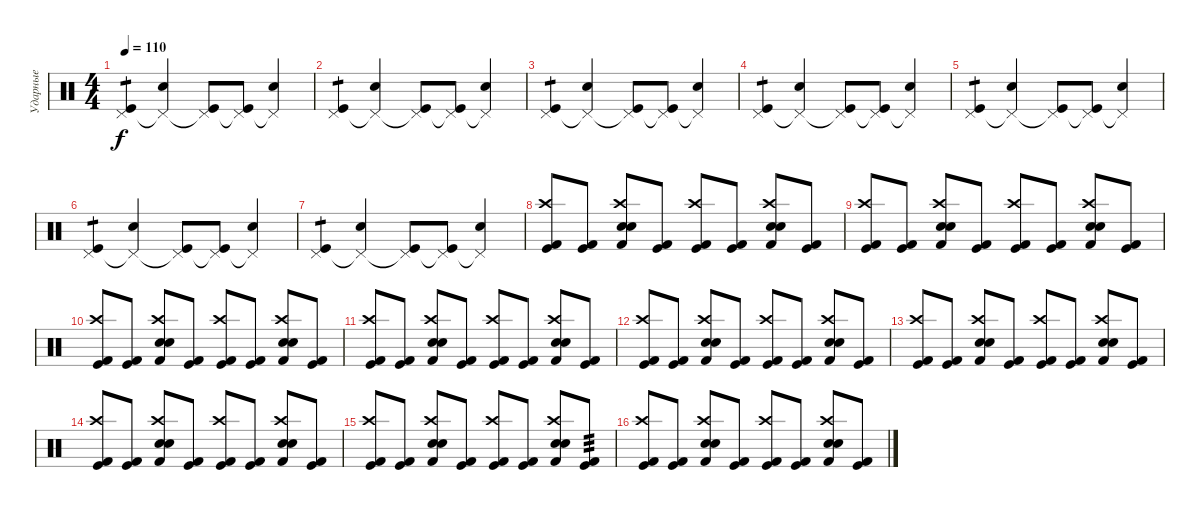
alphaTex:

\track ("Ударные" "Ударные") {instrument percussion}
\staff {score}
\articulation defaults
\ts (4 4)
\tempo 110
\clef neutral
\ks c
("Pedal Hi-Hat (hit)" "Kick (hit)").4{tp 1 dy f} ("Pedal Hi-Hat (hit)"{t} "Electric Snare (hit)").4 ("Pedal Hi-Hat (hit)"{t} "Kick (hit)").8 ("Pedal Hi-Hat (hit)"{t} "Kick (hit)").8 ("Pedal Hi-Hat (hit)"{t} "Electric Snare (hit)").4 |
("Pedal Hi-Hat (hit)" "Kick (hit)").4{tp 1} ("Pedal Hi-Hat (hit)"{t} "Electric Snare (hit)").4 ("Pedal Hi-Hat (hit)"{t} "Kick (hit)").8 ("Pedal Hi-Hat (hit)"{t} "Kick (hit)").8 ("Pedal Hi-Hat (hit)"{t} "Electric Snare (hit)").4 |
("Pedal Hi-Hat (hit)" "Kick (hit)").4{tp 1} ("Pedal Hi-Hat (hit)"{t} "Electric Snare (hit)").4 ("Pedal Hi-Hat (hit)"{t} "Kick (hit)").8 ("Pedal Hi-Hat (hit)"{t} "Kick (hit)").8 ("Pedal Hi-Hat (hit)"{t} "Electric Snare (hit)").4 |
("Pedal Hi-Hat (hit)" "Kick (hit)").4{tp 1} ("Pedal Hi-Hat (hit)"{t} "Electric Snare (hit)").4 ("Pedal Hi-Hat (hit)"{t} "Kick (hit)").8 ("Pedal Hi-Hat (hit)"{t} "Kick (hit)").8 ("Pedal Hi-Hat (hit)"{t} "Electric Snare (hit)").4 |
("Pedal Hi-Hat (hit)" "Kick (hit)").4{tp 1} ("Pedal Hi-Hat (hit)"{t} "Electric Snare (hit)").4 ("Pedal Hi-Hat (hit)"{t} "Kick (hit)").8 ("Pedal Hi-Hat (hit)"{t} "Kick (hit)").8 ("Pedal Hi-Hat (hit)"{t} "Electric Snare (hit)").4 |
("Pedal Hi-Hat (hit)" "Kick (hit)").4{tp 1} ("Pedal Hi-Hat (hit)"{t} "Electric Snare (hit)").4 ("Pedal Hi-Hat (hit)"{t} "Kick (hit)").8 ("Pedal Hi-Hat (hit)"{t} "Kick (hit)").8 ("Pedal Hi-Hat (hit)"{t} "Electric Snare (hit)").4 |
("Pedal Hi-Hat (hit)" "Kick (hit)").4{tp 1} ("Pedal Hi-Hat (hit)"{t} "Electric Snare (hit)").4 ("Pedal Hi-Hat (hit)"{t} "Kick (hit)").8 ("Pedal Hi-Hat (hit)"{t} "Kick (hit)").8 ("Pedal Hi-Hat (hit)"{t} "Electric Snare (hit)").4 |
("Crash high (hit)" "Kick (hit)" "Kick (hit) 2").8 ("Kick (hit)" "Kick (hit) 2").8 ("Crash high (hit)" "Snare (hit) 2" "Electric Snare (hit)" "Kick (hit) 2").8 ("Kick (hit)" "Kick (hit) 2").8 ("Crash high (hit)" "Kick (hit)" "Kick (hit) 2").8 ("Kick (hit)" "Kick (hit) 2").8 ("Crash high (hit)" "Snare (hit) 2" "Electric Snare (hit)" "Kick (hit) 2").8 ("Kick (hit)" "Kick (hit) 2").8 |
("Crash high (hit)" "Kick (hit)" "Kick (hit) 2").8 ("Kick (hit)" "Kick (hit) 2").8 ("Crash high (hit)" "Snare (hit) 2" "Electric Snare (hit)" "Kick (hit) 2").8 ("Kick (hit)" "Kick (hit) 2").8 ("Crash high (hit)" "Kick (hit)" "Kick (hit) 2").8 ("Kick (hit)" "Kick (hit) 2").8 ("Crash high (hit)" "Snare (hit) 2" "Electric Snare (hit)" "Kick (hit) 2").8 ("Kick (hit)" "Kick (hit) 2").8 |
("Crash high (hit)" "Kick (hit)" "Kick (hit) 2").8 ("Kick (hit)" "Kick (hit) 2").8 ("Crash high (hit)" "Snare (hit) 2" "Electric Snare (hit)" "Kick (hit) 2").8 ("Kick (hit)" "Kick (hit) 2").8 ("Crash high (hit)" "Kick (hit)" "Kick (hit) 2").8 ("Kick (hit)" "Kick (hit) 2").8 ("Crash high (hit)" "Snare (hit) 2" "Electric Snare (hit)" "Kick (hit) 2").8 ("Kick (hit)" "Kick (hit) 2").8 |
("Crash high (hit)" "Kick (hit)" "Kick (hit) 2").8 ("Kick (hit)" "Kick (hit) 2").8 ("Crash high (hit)" "Snare (hit) 2" "Electric Snare (hit)" "Kick (hit) 2").8 ("Kick (hit)" "Kick (hit) 2").8 ("Crash high (hit)" "Kick (hit)" "Kick (hit) 2").8 ("Kick (hit)" "Kick (hit) 2").8 ("Crash high (hit)" "Snare (hit) 2" "Electric Snare (hit)" "Kick (hit) 2").8 ("Kick (hit)" "Kick (hit) 2").8 |
("Crash high (hit)" "Kick (hit)" "Kick (hit) 2").8 ("Kick (hit)" "Kick (hit) 2").8 ("Crash high (hit)" "Snare (hit) 2" "Electric Snare (hit)" "Kick (hit) 2").8 ("Kick (hit)" "Kick (hit) 2").8 ("Crash high (hit)" "Kick (hit)" "Kick (hit) 2").8 ("Kick (hit)" "Kick (hit) 2").8 ("Crash high (hit)" "Snare (hit) 2" "Electric Snare (hit)" "Kick (hit) 2").8 ("Kick (hit)" "Kick (hit) 2").8 |
("Crash high (hit)" "Kick (hit)" "Kick (hit) 2").8 ("Kick (hit)" "Kick (hit) 2").8 ("Crash high (hit)" "Snare (hit) 2" "Electric Snare (hit)" "Kick (hit) 2").8 ("Kick (hit)" "Kick (hit) 2").8 ("Crash high (hit)" "Kick (hit)" "Kick (hit) 2").8 ("Kick (hit)" "Kick (hit) 2").8 ("Crash high (hit)" "Snare (hit) 2" "Electric Snare (hit)" "Kick (hit) 2").8 ("Kick (hit)" "Kick (hit) 2").8 |
("Crash high (hit)" "Kick (hit)" "Kick (hit) 2").8 ("Kick (hit)" "Kick (hit) 2").8 ("Crash high (hit)" "Snare (hit) 2" "Electric Snare (hit)" "Kick (hit) 2").8 ("Kick (hit)" "Kick (hit) 2").8 ("Crash high (hit)" "Kick (hit)" "Kick (hit) 2").8 ("Kick (hit)" "Kick (hit) 2").8 ("Crash high (hit)" "Snare (hit) 2" "Electric Snare (hit)" "Kick (hit) 2").8 ("Kick (hit)" "Kick (hit) 2").8 |
("Crash high (hit)" "Kick (hit)" "Kick (hit) 2").8 ("Kick (hit)" "Kick (hit) 2").8 ("Crash high (hit)" "Snare (hit) 2" "Electric Snare (hit)" "Kick (hit) 2").8 ("Kick (hit)" "Kick (hit) 2").8 ("Crash high (hit)" "Kick (hit)" "Kick (hit) 2").8 ("Kick (hit)" "Kick (hit) 2").8 ("Crash high (hit)" "Snare (hit) 2" "Electric Snare (hit)" "Kick (hit) 2").8 ("Kick (hit)" "Kick (hit) 2").8{tp 3} |
("Crash high (hit)" "Kick (hit)" "Kick (hit) 2").8 ("Kick (hit)" "Kick (hit) 2").8 ("Crash high (hit)" "Snare (hit) 2" "Electric Snare (hit)" "Kick (hit) 2").8 ("Kick (hit)" "Kick (hit) 2").8 ("Crash high (hit)" "Kick (hit)" "Kick (hit) 2").8 ("Kick (hit)" "Kick (hit) 2").8 ("Crash high (hit)" "Snare (hit) 2" "Electric Snare (hit)" "Kick (hit) 2").8 ("Kick (hit)" "Kick (hit) 2").8
